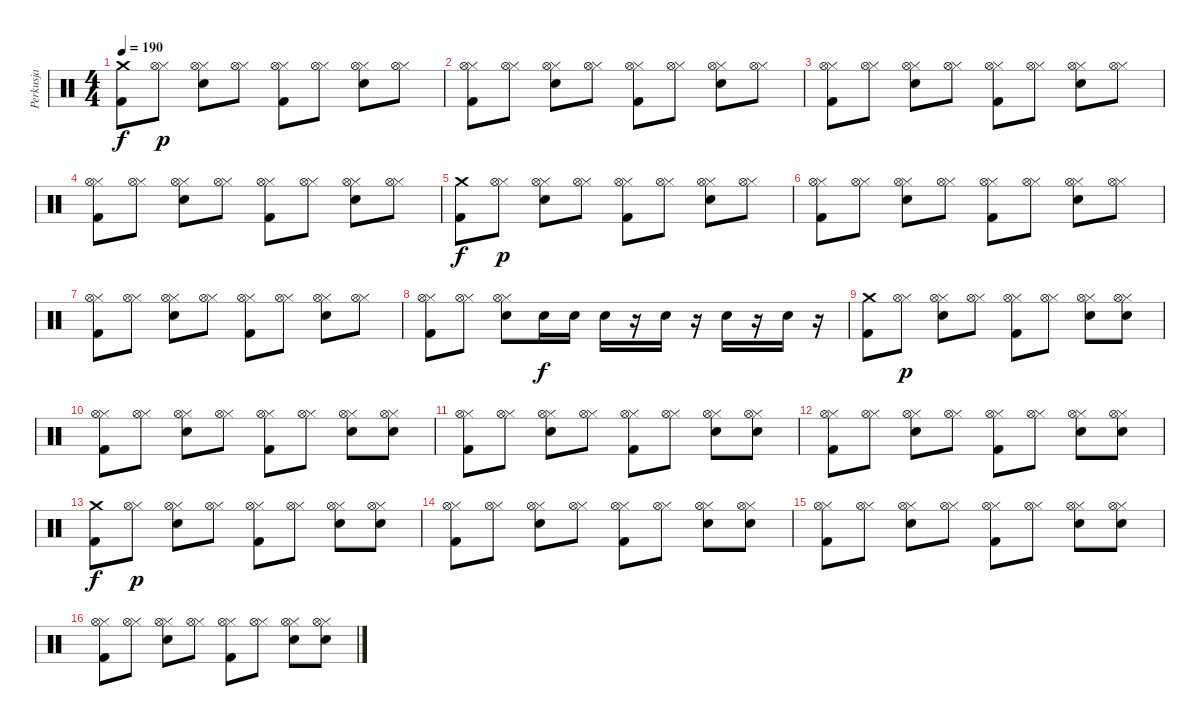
\track ("Perkusja" "Perkusja") {instrument percussion}
\staff {score}
\articulation defaults
\ts (4 4)
\tempo 190
\clef neutral
\ks c
("Kick (hit) 2" "Crash medium (hit)").8{dy f} ("Hi-Hat (closed)" "Hi-Hat (open)").8{dy p} ("Electric Snare (hit)" "Hi-Hat (closed)" "Hi-Hat (open)").8 ("Hi-Hat (closed)" "Hi-Hat (open)").8 ("Kick (hit) 2" "Hi-Hat (closed)" "Hi-Hat (open)").8 ("Hi-Hat (closed)" "Hi-Hat (open)").8 ("Electric Snare (hit)" "Hi-Hat (closed)" "Hi-Hat (open)").8 ("Hi-Hat (closed)" "Hi-Hat (open)").8 |
("Kick (hit) 2" "Hi-Hat (closed)" "Hi-Hat (open)").8 ("Hi-Hat (closed)" "Hi-Hat (open)").8 ("Electric Snare (hit)" "Hi-Hat (closed)" "Hi-Hat (open)").8 ("Hi-Hat (closed)" "Hi-Hat (open)").8 ("Kick (hit) 2" "Hi-Hat (closed)" "Hi-Hat (open)").8 ("Hi-Hat (closed)" "Hi-Hat (open)").8 ("Electric Snare (hit)" "Hi-Hat (closed)" "Hi-Hat (open)").8 ("Hi-Hat (closed)" "Hi-Hat (open)").8 |
("Kick (hit) 2" "Hi-Hat (closed)" "Hi-Hat (open)").8 ("Hi-Hat (closed)" "Hi-Hat (open)").8 ("Electric Snare (hit)" "Hi-Hat (closed)" "Hi-Hat (open)").8 ("Hi-Hat (closed)" "Hi-Hat (open)").8 ("Kick (hit) 2" "Hi-Hat (closed)" "Hi-Hat (open)").8 ("Hi-Hat (closed)" "Hi-Hat (open)").8 ("Electric Snare (hit)" "Hi-Hat (closed)" "Hi-Hat (open)").8 ("Hi-Hat (closed)" "Hi-Hat (open)").8 |
("Kick (hit) 2" "Hi-Hat (closed)" "Hi-Hat (open)").8 ("Hi-Hat (closed)" "Hi-Hat (open)").8 ("Electric Snare (hit)" "Hi-Hat (closed)" "Hi-Hat (open)").8 ("Hi-Hat (closed)" "Hi-Hat (open)").8 ("Kick (hit) 2" "Hi-Hat (closed)" "Hi-Hat (open)").8 ("Hi-Hat (closed)" "Hi-Hat (open)").8 ("Electric Snare (hit)" "Hi-Hat (closed)" "Hi-Hat (open)").8 ("Hi-Hat (closed)" "Hi-Hat (open)").8 |
("Kick (hit) 2" "Crash medium (hit)").8{dy f} ("Hi-Hat (closed)" "Hi-Hat (open)").8{dy p} ("Electric Snare (hit)" "Hi-Hat (closed)" "Hi-Hat (open)").8 ("Hi-Hat (closed)" "Hi-Hat (open)").8 ("Kick (hit) 2" "Hi-Hat (closed)" "Hi-Hat (open)").8 ("Hi-Hat (closed)" "Hi-Hat (open)").8 ("Electric Snare (hit)" "Hi-Hat (closed)" "Hi-Hat (open)").8 ("Hi-Hat (closed)" "Hi-Hat (open)").8 |
("Kick (hit) 2" "Hi-Hat (closed)" "Hi-Hat (open)").8 ("Hi-Hat (closed)" "Hi-Hat (open)").8 ("Electric Snare (hit)" "Hi-Hat (closed)" "Hi-Hat (open)").8 ("Hi-Hat (closed)" "Hi-Hat (open)").8 ("Kick (hit) 2" "Hi-Hat (closed)" "Hi-Hat (open)").8 ("Hi-Hat (closed)" "Hi-Hat (open)").8 ("Electric Snare (hit)" "Hi-Hat (closed)" "Hi-Hat (open)").8 ("Hi-Hat (closed)" "Hi-Hat (open)").8 |
("Kick (hit) 2" "Hi-Hat (closed)" "Hi-Hat (open)").8 ("Hi-Hat (closed)" "Hi-Hat (open)").8 ("Electric Snare (hit)" "Hi-Hat (closed)" "Hi-Hat (open)").8 ("Hi-Hat (closed)" "Hi-Hat (open)").8 ("Kick (hit) 2" "Hi-Hat (closed)" "Hi-Hat (open)").8 ("Hi-Hat (closed)" "Hi-Hat (open)").8 ("Electric Snare (hit)" "Hi-Hat (closed)" "Hi-Hat (open)").8 ("Hi-Hat (closed)" "Hi-Hat (open)").8 |
("Kick (hit) 2" "Hi-Hat (closed)" "Hi-Hat (open)").8 ("Hi-Hat (closed)" "Hi-Hat (open)").8 ("Electric Snare (hit)" "Hi-Hat (closed)" "Hi-Hat (open)").8 "Electric Snare (hit)".16{dy f} "Electric Snare (hit)".16 "Electric Snare (hit)".16 r.16 "Electric Snare (hit)".16 r.16 "Electric Snare (hit)".16 r.16 "Electric Snare (hit)".16 r.16 |
("Kick (hit) 2" "Crash medium (hit)").8 ("Hi-Hat (closed)" "Hi-Hat (open)").8{dy p} ("Electric Snare (hit)" "Hi-Hat (closed)" "Hi-Hat (open)").8 ("Hi-Hat (closed)" "Hi-Hat (open)").8 ("Kick (hit) 2" "Hi-Hat (closed)" "Hi-Hat (open)").8 ("Hi-Hat (closed)" "Hi-Hat (open)").8 ("Electric Snare (hit)" "Hi-Hat (closed)" "Hi-Hat (open)").8 ("Electric Snare (hit)" "Hi-Hat (closed)" "Hi-Hat (open)").8 |
("Kick (hit) 2" "Hi-Hat (closed)" "Hi-Hat (open)").8 ("Hi-Hat (closed)" "Hi-Hat (open)").8 ("Electric Snare (hit)" "Hi-Hat (closed)" "Hi-Hat (open)").8 ("Hi-Hat (closed)" "Hi-Hat (open)").8 ("Kick (hit) 2" "Hi-Hat (closed)" "Hi-Hat (open)").8 ("Hi-Hat (closed)" "Hi-Hat (open)").8 ("Electric Snare (hit)" "Hi-Hat (closed)" "Hi-Hat (open)").8 ("Electric Snare (hit)" "Hi-Hat (closed)" "Hi-Hat (open)").8 |
("Kick (hit) 2" "Hi-Hat (closed)" "Hi-Hat (open)").8 ("Hi-Hat (closed)" "Hi-Hat (open)").8 ("Electric Snare (hit)" "Hi-Hat (closed)" "Hi-Hat (open)").8 ("Hi-Hat (closed)" "Hi-Hat (open)").8 ("Kick (hit) 2" "Hi-Hat (closed)" "Hi-Hat (open)").8 ("Hi-Hat (closed)" "Hi-Hat (open)").8 ("Electric Snare (hit)" "Hi-Hat (closed)" "Hi-Hat (open)").8 ("Electric Snare (hit)" "Hi-Hat (closed)" "Hi-Hat (open)").8 |
("Kick (hit) 2" "Hi-Hat (closed)" "Hi-Hat (open)").8 ("Hi-Hat (closed)" "Hi-Hat (open)").8 ("Electric Snare (hit)" "Hi-Hat (closed)" "Hi-Hat (open)").8 ("Hi-Hat (closed)" "Hi-Hat (open)").8 ("Kick (hit) 2" "Hi-Hat (closed)" "Hi-Hat (open)").8 ("Hi-Hat (closed)" "Hi-Hat (open)").8 ("Electric Snare (hit)" "Hi-Hat (closed)" "Hi-Hat (open)").8 ("Electric Snare (hit)" "Hi-Hat (closed)" "Hi-Hat (open)").8 |
("Kick (hit) 2" "Crash medium (hit)").8{dy f} ("Hi-Hat (closed)" "Hi-Hat (open)").8{dy p} ("Electric Snare (hit)" "Hi-Hat (closed)" "Hi-Hat (open)").8 ("Hi-Hat (closed)" "Hi-Hat (open)").8 ("Kick (hit) 2" "Hi-Hat (closed)" "Hi-Hat (open)").8 ("Hi-Hat (closed)" "Hi-Hat (open)").8 ("Electric Snare (hit)" "Hi-Hat (closed)" "Hi-Hat (open)").8 ("Electric Snare (hit)" "Hi-Hat (closed)" "Hi-Hat (open)").8 |
("Kick (hit) 2" "Hi-Hat (closed)" "Hi-Hat (open)").8 ("Hi-Hat (closed)" "Hi-Hat (open)").8 ("Electric Snare (hit)" "Hi-Hat (closed)" "Hi-Hat (open)").8 ("Hi-Hat (closed)" "Hi-Hat (open)").8 ("Kick (hit) 2" "Hi-Hat (closed)" "Hi-Hat (open)").8 ("Hi-Hat (closed)" "Hi-Hat (open)").8 ("Electric Snare (hit)" "Hi-Hat (closed)" "Hi-Hat (open)").8 ("Electric Snare (hit)" "Hi-Hat (closed)" "Hi-Hat (open)").8 |
("Kick (hit) 2" "Hi-Hat (closed)" "Hi-Hat (open)").8 ("Hi-Hat (closed)" "Hi-Hat (open)").8 ("Electric Snare (hit)" "Hi-Hat (closed)" "Hi-Hat (open)").8 ("Hi-Hat (closed)" "Hi-Hat (open)").8 ("Kick (hit) 2" "Hi-Hat (closed)" "Hi-Hat (open)").8 ("Hi-Hat (closed)" "Hi-Hat (open)").8 ("Electric Snare (hit)" "Hi-Hat (closed)" "Hi-Hat (open)").8 ("Electric Snare (hit)" "Hi-Hat (closed)" "Hi-Hat (open)").8 |
("Kick (hit) 2" "Hi-Hat (closed)" "Hi-Hat (open)").8 ("Hi-Hat (closed)" "Hi-Hat (open)").8 ("Electric Snare (hit)" "Hi-Hat (closed)" "Hi-Hat (open)").8 ("Hi-Hat (closed)" "Hi-Hat (open)").8 ("Kick (hit) 2" "Hi-Hat (closed)" "Hi-Hat (open)").8 ("Hi-Hat (closed)" "Hi-Hat (open)").8 ("Electric Snare (hit)" "Hi-Hat (closed)" "Hi-Hat (open)").8 ("Electric Snare (hit)" "Hi-Hat (closed)" "Hi-Hat (open)").8
